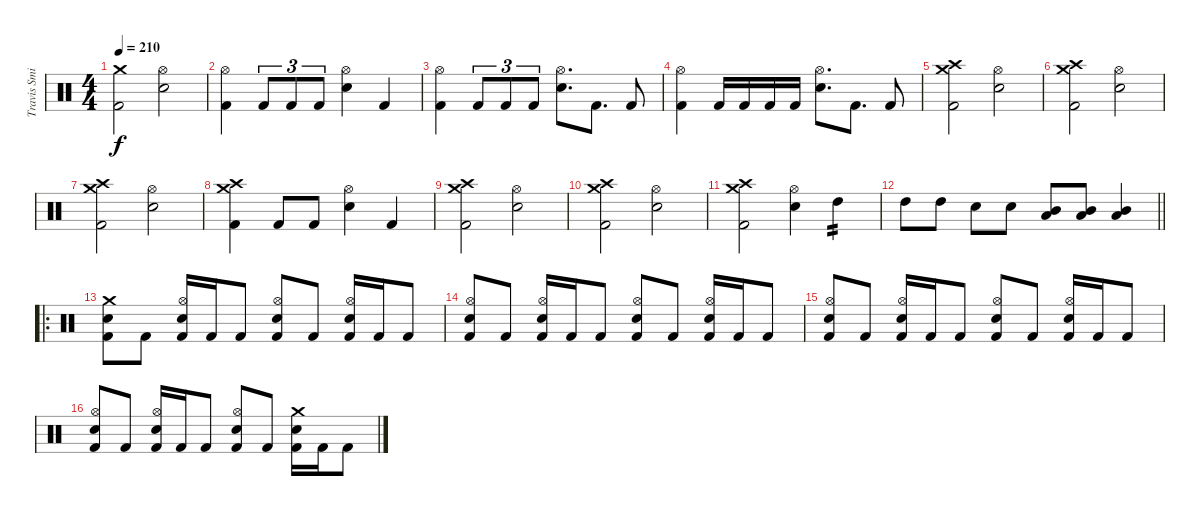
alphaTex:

\track ("Travis Smith" "Travis Smi") {instrument percussion}
\staff {score}
\articulation defaults
\ts (4 4)
\tempo 210
\clef neutral
\ks c
("Crash medium (hit)" "Kick (hit) 2").2{dy f} ("Hi-Hat (open)" "Electric Snare (hit)").2 |
("Hi-Hat (open)" "Kick (hit) 2").4 "Kick (hit) 2".8{tu (3 2)} "Kick (hit) 2".8{tu (3 2)} "Kick (hit) 2".8{tu (3 2)} ("Hi-Hat (open)" "Electric Snare (hit)").4 "Kick (hit) 2".4 |
("Hi-Hat (open)" "Kick (hit) 2").4 "Kick (hit) 2".8{tu (3 2)} "Kick (hit) 2".8{tu (3 2)} "Kick (hit) 2".8{tu (3 2)} ("Hi-Hat (open)" "Electric Snare (hit)").8{d} "Kick (hit) 2".8{d} "Kick (hit) 2".8 |
("Hi-Hat (open)" "Kick (hit) 2").4 "Kick (hit) 2".16 "Kick (hit) 2".16 "Kick (hit) 2".16 "Kick (hit) 2".16 ("Hi-Hat (open)" "Electric Snare (hit)").8{d} "Kick (hit) 2".8{d} "Kick (hit) 2".8 |
("Crash medium (hit)" "Crash high (hit)" "Kick (hit) 2").2 ("Hi-Hat (open)" "Electric Snare (hit)").2 |
("Crash medium (hit)" "Crash high (hit)" "Kick (hit) 2").2 ("Hi-Hat (open)" "Electric Snare (hit)").2 |
("Crash medium (hit)" "Crash high (hit)" "Kick (hit) 2").2 ("Hi-Hat (open)" "Electric Snare (hit)").2 |
("Crash medium (hit)" "Crash high (hit)" "Kick (hit) 2").4 "Kick (hit) 2".8 "Kick (hit) 2".8 ("Hi-Hat (open)" "Electric Snare (hit)").4 "Kick (hit) 2".4 |
("Crash medium (hit)" "Crash high (hit)" "Kick (hit) 2").2 ("Hi-Hat (open)" "Electric Snare (hit)").2 |
("Crash medium (hit)" "Crash high (hit)" "Kick (hit) 2").2 ("Hi-Hat (open)" "Electric Snare (hit)").2 |
("Crash medium (hit)" "Crash high (hit)" "Kick (hit) 2").2 ("Hi-Hat (open)" "Electric Snare (hit)").4 "High Tom (hit)".4{tp 2} |
\barLineRight lightlight "High Tom (hit)".8 "High Tom (hit)".8 "Electric Snare (hit)".8 "Electric Snare (hit)".8
("Mid Tom (hit)" "Low Tom (hit)").8 ("Mid Tom (hit)" "Low Tom (hit)").8 ("Mid Tom (hit)" "Low Tom (hit)").4 |
\ro
("Crash medium (hit)" "Electric Snare (hit)" "Kick (hit) 2").8 "Kick (hit) 2".8 ("Hi-Hat (open)" "Electric Snare (hit)" "Kick (hit) 2").16 "Kick (hit) 2".16 "Kick (hit) 2".8 ("Hi-Hat (open)" "Electric Snare (hit)" "Kick (hit) 2").8 "Kick (hit) 2".8 ("Hi-Hat (open)" "Electric Snare (hit)" "Kick (hit) 2").16 "Kick (hit) 2".16 "Kick (hit) 2".8 |
("Hi-Hat (open)" "Electric Snare (hit)" "Kick (hit) 2").8 "Kick (hit) 2".8 ("Hi-Hat (open)" "Electric Snare (hit)" "Kick (hit) 2").16 "Kick (hit) 2".16 "Kick (hit) 2".8 ("Hi-Hat (open)" "Electric Snare (hit)" "Kick (hit) 2").8 "Kick (hit) 2".8 ("Hi-Hat (open)" "Electric Snare (hit)" "Kick (hit) 2").16 "Kick (hit) 2".16 "Kick (hit) 2".8 |
("Hi-Hat (open)" "Electric Snare (hit)" "Kick (hit) 2").8 "Kick (hit) 2".8 ("Hi-Hat (open)" "Electric Snare (hit)" "Kick (hit) 2").16 "Kick (hit) 2".16 "Kick (hit) 2".8 ("Hi-Hat (open)" "Electric Snare (hit)" "Kick (hit) 2").8 "Kick (hit) 2".8 ("Hi-Hat (open)" "Electric Snare (hit)" "Kick (hit) 2").16 "Kick (hit) 2".16 "Kick (hit) 2".8 |
("Hi-Hat (open)" "Electric Snare (hit)" "Kick (hit) 2").8 "Kick (hit) 2".8 ("Hi-Hat (open)" "Electric Snare (hit)" "Kick (hit) 2").16 "Kick (hit) 2".16 "Kick (hit) 2".8 ("Hi-Hat (open)" "Electric Snare (hit)" "Kick (hit) 2").8 "Kick (hit) 2".8 ("Crash medium (hit)" "Electric Snare (hit)" "Kick (hit) 2").16 "Kick (hit) 2".16 "Kick (hit) 2".8
